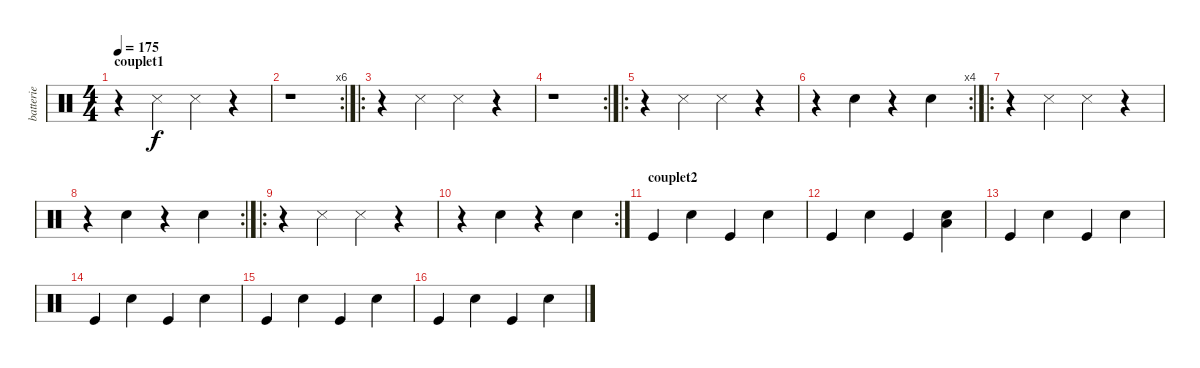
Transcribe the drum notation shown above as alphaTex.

\track ("batterie" "batterie") {instrument percussion}
\staff {score}
\articulation defaults
\ts (4 4)
\section ("" "couplet1")
\tempo 175
\clef neutral
\ks c
r.4{dy f} "Snare (side stick) 3".4 "Snare (side stick) 3".4 r.4 |
\rc 6
r.1 |
\ro
r.4 "Snare (side stick) 3".4 "Snare (side stick) 3".4 r.4 |
\rc 2
r.1 |
\ro
r.4 "Snare (side stick) 3".4 "Snare (side stick) 3".4 r.4 |
\rc 4
r.4 "Snare (hit) 2".4 r.4 "Snare (hit) 2".4 |
\ro
r.4 "Snare (side stick) 3".4 "Snare (side stick) 3".4 r.4 |
\rc 2
r.4 "Snare (hit) 2".4 r.4 "Snare (hit) 2".4 |
\ro
r.4 "Snare (side stick) 3".4 "Snare (side stick) 3".4 r.4 |
\rc 2
r.4 "Snare (hit) 2".4 r.4 "Snare (hit) 2".4 |
\section ("" "couplet2")
"Kick (hit)".4 "Snare (hit) 2".4 "Kick (hit)".4 "Snare (hit) 2".4 |
"Kick (hit)".4 "Snare (hit) 2".4 "Kick (hit)".4 ("Low Floor Tom (hit)" "Snare (hit) 2").4 |
"Kick (hit)".4 "Snare (hit) 2".4 "Kick (hit)".4 "Snare (hit) 2".4 |
"Kick (hit)".4 "Snare (hit) 2".4 "Kick (hit)".4 "Snare (hit) 2".4 |
"Kick (hit)".4 "Snare (hit) 2".4 "Kick (hit)".4 "Snare (hit) 2".4 |
"Kick (hit)".4 "Snare (hit) 2".4 "Kick (hit)".4 "Snare (hit) 2".4
